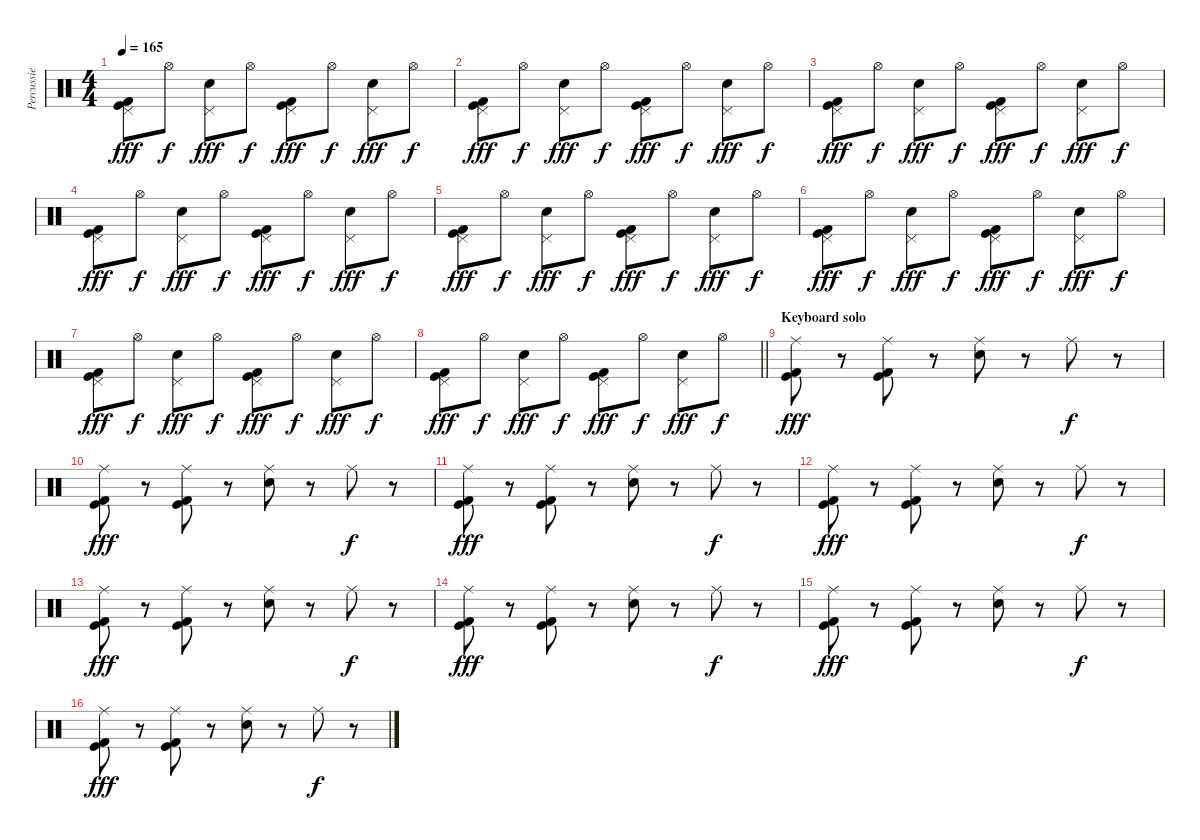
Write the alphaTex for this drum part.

\track ("Percussie" "Percussie") {instrument percussion}
\staff {score}
\articulation defaults
\ts (4 4)
\tempo 165
\clef neutral
\ks c
("Pedal Hi-Hat (hit)" "Kick (hit)" "Kick (hit) 2").8{dy fff} "Hi-Hat (open)".8{dy f} ("Pedal Hi-Hat (hit)" "Snare (hit) 2").8{dy fff} "Hi-Hat (open)".8{dy f} ("Pedal Hi-Hat (hit)" "Kick (hit)" "Kick (hit) 2").8{dy fff} "Hi-Hat (open)".8{dy f} ("Pedal Hi-Hat (hit)" "Snare (hit) 2").8{dy fff} "Hi-Hat (open)".8{dy f} |
("Pedal Hi-Hat (hit)" "Kick (hit)" "Kick (hit) 2").8{dy fff} "Hi-Hat (open)".8{dy f} ("Pedal Hi-Hat (hit)" "Snare (hit) 2").8{dy fff} "Hi-Hat (open)".8{dy f} ("Pedal Hi-Hat (hit)" "Kick (hit)" "Kick (hit) 2").8{dy fff} "Hi-Hat (open)".8{dy f} ("Pedal Hi-Hat (hit)" "Snare (hit) 2").8{dy fff} "Hi-Hat (open)".8{dy f} |
("Pedal Hi-Hat (hit)" "Kick (hit)" "Kick (hit) 2").8{dy fff} "Hi-Hat (open)".8{dy f} ("Pedal Hi-Hat (hit)" "Snare (hit) 2").8{dy fff} "Hi-Hat (open)".8{dy f} ("Pedal Hi-Hat (hit)" "Kick (hit)" "Kick (hit) 2").8{dy fff} "Hi-Hat (open)".8{dy f} ("Pedal Hi-Hat (hit)" "Snare (hit) 2").8{dy fff} "Hi-Hat (open)".8{dy f} |
("Pedal Hi-Hat (hit)" "Kick (hit)" "Kick (hit) 2").8{dy fff} "Hi-Hat (open)".8{dy f} ("Pedal Hi-Hat (hit)" "Snare (hit) 2").8{dy fff} "Hi-Hat (open)".8{dy f} ("Pedal Hi-Hat (hit)" "Kick (hit)" "Kick (hit) 2").8{dy fff} "Hi-Hat (open)".8{dy f} ("Pedal Hi-Hat (hit)" "Snare (hit) 2").8{dy fff} "Hi-Hat (open)".8{dy f} |
("Pedal Hi-Hat (hit)" "Kick (hit)" "Kick (hit) 2").8{dy fff} "Hi-Hat (open)".8{dy f} ("Pedal Hi-Hat (hit)" "Snare (hit) 2").8{dy fff} "Hi-Hat (open)".8{dy f} ("Pedal Hi-Hat (hit)" "Kick (hit)" "Kick (hit) 2").8{dy fff} "Hi-Hat (open)".8{dy f} ("Pedal Hi-Hat (hit)" "Snare (hit) 2").8{dy fff} "Hi-Hat (open)".8{dy f} |
("Pedal Hi-Hat (hit)" "Kick (hit)" "Kick (hit) 2").8{dy fff} "Hi-Hat (open)".8{dy f} ("Pedal Hi-Hat (hit)" "Snare (hit) 2").8{dy fff} "Hi-Hat (open)".8{dy f} ("Pedal Hi-Hat (hit)" "Kick (hit)" "Kick (hit) 2").8{dy fff} "Hi-Hat (open)".8{dy f} ("Pedal Hi-Hat (hit)" "Snare (hit) 2").8{dy fff} "Hi-Hat (open)".8{dy f} |
("Pedal Hi-Hat (hit)" "Kick (hit)" "Kick (hit) 2").8{dy fff} "Hi-Hat (open)".8{dy f} ("Pedal Hi-Hat (hit)" "Snare (hit) 2").8{dy fff} "Hi-Hat (open)".8{dy f} ("Pedal Hi-Hat (hit)" "Kick (hit)" "Kick (hit) 2").8{dy fff} "Hi-Hat (open)".8{dy f} ("Pedal Hi-Hat (hit)" "Snare (hit) 2").8{dy fff} "Hi-Hat (open)".8{dy f} |
\barLineRight lightlight
("Pedal Hi-Hat (hit)" "Kick (hit)" "Kick (hit) 2").8{dy fff} "Hi-Hat (open)".8{dy f} ("Pedal Hi-Hat (hit)" "Snare (hit) 2").8{dy fff} "Hi-Hat (open)".8{dy f} ("Pedal Hi-Hat (hit)" "Kick (hit)" "Kick (hit) 2").8{dy fff} "Hi-Hat (open)".8{dy f} ("Pedal Hi-Hat (hit)" "Snare (hit) 2").8{dy fff} "Hi-Hat (open)".8{dy f} |
\section ("" "Keyboard solo")
("Ride (middle)" "Kick (hit)" "Kick (hit) 2").8{dy fff} r.8 ("Ride (middle)" "Kick (hit)" "Kick (hit) 2").8 r.8 ("Ride (middle)" "Snare (hit) 2").8 r.8 "Ride (middle)".8{dy f} r.8 |
("Ride (middle)" "Kick (hit)" "Kick (hit) 2").8{dy fff} r.8 ("Ride (middle)" "Kick (hit)" "Kick (hit) 2").8 r.8 ("Ride (middle)" "Snare (hit) 2").8 r.8 "Ride (middle)".8{dy f} r.8 |
("Ride (middle)" "Kick (hit)" "Kick (hit) 2").8{dy fff} r.8 ("Ride (middle)" "Kick (hit)" "Kick (hit) 2").8 r.8 ("Ride (middle)" "Snare (hit) 2").8 r.8 "Ride (middle)".8{dy f} r.8 |
("Ride (middle)" "Kick (hit)" "Kick (hit) 2").8{dy fff} r.8 ("Ride (middle)" "Kick (hit)" "Kick (hit) 2").8 r.8 ("Ride (middle)" "Snare (hit) 2").8 r.8 "Ride (middle)".8{dy f} r.8 |
("Ride (middle)" "Kick (hit)" "Kick (hit) 2").8{dy fff} r.8 ("Ride (middle)" "Kick (hit)" "Kick (hit) 2").8 r.8 ("Ride (middle)" "Snare (hit) 2").8 r.8 "Ride (middle)".8{dy f} r.8 |
("Ride (middle)" "Kick (hit)" "Kick (hit) 2").8{dy fff} r.8 ("Ride (middle)" "Kick (hit)" "Kick (hit) 2").8 r.8 ("Ride (middle)" "Snare (hit) 2").8 r.8 "Ride (middle)".8{dy f} r.8 |
("Ride (middle)" "Kick (hit)" "Kick (hit) 2").8{dy fff} r.8 ("Ride (middle)" "Kick (hit)" "Kick (hit) 2").8 r.8 ("Ride (middle)" "Snare (hit) 2").8 r.8 "Ride (middle)".8{dy f} r.8 |
("Ride (middle)" "Kick (hit)" "Kick (hit) 2").8{dy fff} r.8 ("Ride (middle)" "Kick (hit)" "Kick (hit) 2").8 r.8 ("Ride (middle)" "Snare (hit) 2").8 r.8 "Ride (middle)".8{dy f} r.8
